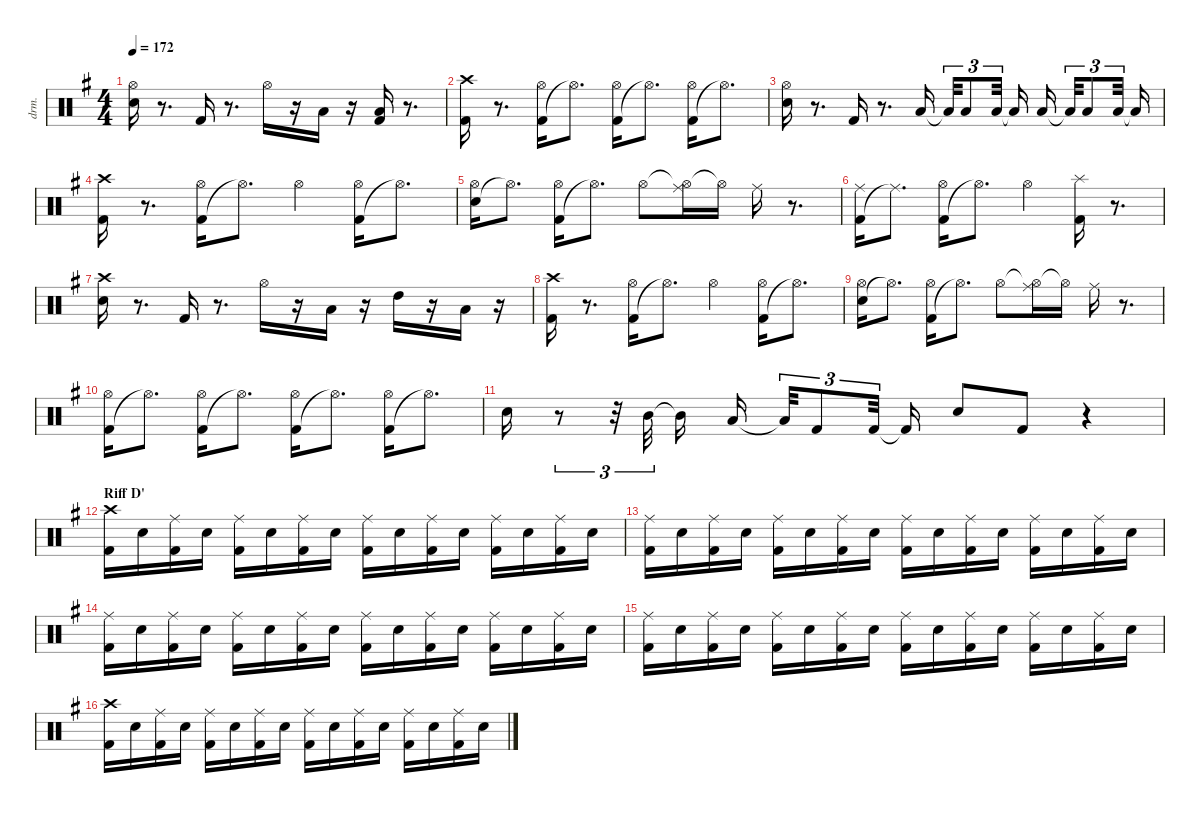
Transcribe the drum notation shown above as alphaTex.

\defaultSystemsLayout 4
\hideDynamics
\bracketExtendMode nobrackets
\otherSystemsTrackNameOrientation horizontal
\track ("Shinya" "drm.") {instrument percussion}
\staff {score}
\articulation defaults
\ts (4 4)
\tempo 172
\clef neutral
\ks eminor
("Snare (hit) 2"{acc forcenatural} "Hi-Hat (open)"{acc #}).16{dy fff beam Down} r.8{d beam Down} "Kick (hit) 2"{acc forcenatural}.16{beam Up} r.8{d beam Up} "Hi-Hat (open)"{acc #}.16{beam Down} r.16{beam Down} "Low Tom (hit)"{acc forcenatural}.16{beam Up} r.16{beam Up} ("Kick (hit) 2"{acc forcenatural} "Low Tom (hit)"{acc forcenatural}).16{beam Up} r.8{d beam Up} |
("Kick (hit) 2"{acc forcenatural} "Crash high (hit)"{acc #}).16{beam Down} r.8{d beam Down} ("Kick (hit) 2"{acc forcenatural} "Hi-Hat (open)"{acc #}).16{beam Down} "Hi-Hat (open)"{t acc #}.8{d beam Down} ("Kick (hit) 2"{acc forcenatural} "Hi-Hat (open)"{acc #}).16{beam Down} "Hi-Hat (open)"{t acc #}.8{d beam Down} ("Kick (hit) 2"{acc forcenatural} "Hi-Hat (open)"{acc #}).16{beam Down} "Hi-Hat (open)"{t acc #}.8{d beam Down} |
("Snare (hit) 2"{acc forcenatural} "Hi-Hat (open)"{acc #}).16{beam Down} r.8{d beam Down} "Kick (hit) 2"{acc forcenatural}.16{beam Up} r.8{d beam Up} "Low Tom (hit)"{acc forcenatural}.16{dy mf beam Up} "Low Tom (hit)"{t acc forcenatural}.32{tu (3 2) beam Up} "Low Tom (hit)"{acc forcenatural}.8{tu (3 2) dy f beam Up} "Low Tom (hit)"{acc forcenatural}.32{tu (3 2) dy fff beam Up} "Low Tom (hit)"{t acc forcenatural}.16{beam Up} "Low Tom (hit)"{acc forcenatural}.16{beam Up} "Low Tom (hit)"{t acc forcenatural}.32{tu (3 2) beam Up} "Low Tom (hit)"{acc forcenatural}.8{tu (3 2) beam Up} "Low Tom (hit)"{acc forcenatural}.32{tu (3 2) beam Up} "Low Tom (hit)"{t acc forcenatural}.16{beam Up} |
("Kick (hit) 2"{acc forcenatural} "Crash high (hit)"{acc #}).16{beam Down} r.8{d beam Down} ("Kick (hit) 2"{acc forcenatural} "Hi-Hat (open)"{acc #}).16{beam Down} "Hi-Hat (open)"{t acc #}.8{d beam Down} "Hi-Hat (open)"{acc #}.4{beam Down} ("Kick (hit) 2"{acc forcenatural} "Hi-Hat (open)"{acc #}).16{beam Down} "Hi-Hat (open)"{t acc #}.8{d beam Down} |
("Snare (hit) 2"{acc forcenatural} "Hi-Hat (open)"{acc #}).16{beam Down} "Hi-Hat (open)"{t acc #}.8{d beam Down} ("Kick (hit) 2"{acc forcenatural} "Hi-Hat (open)"{acc #}).16{beam Down} "Hi-Hat (open)"{t acc #}.8{d beam Down} "Hi-Hat (open)"{acc #}.8{beam Down} ("Hi-Hat (open)"{t acc #} "Ride (middle)"{acc #}).16{beam Down} "Hi-Hat (open)"{t acc #}.16{beam Down} "Ride (middle)"{acc #}.16{beam Down} r.8{d beam Down} |
("Kick (hit) 2"{acc forcenatural} "Ride (middle)"{acc #}).16{beam Down} "Ride (middle)"{t acc #}.8{d beam Down} ("Kick (hit) 2"{acc forcenatural} "Hi-Hat (open)"{acc #}).16{beam Down} "Hi-Hat (open)"{t acc #}.8{d beam Down} "Hi-Hat (open)"{acc #}.4{beam Down} ("Kick (hit) 2"{acc forcenatural} "Splash (hit)"{acc forcenatural}).16{beam Down} r.8{d beam Down} |
("Snare (hit) 2"{acc forcenatural} "Crash high (hit)"{acc #}).16{beam Down} r.8{d beam Down} "Kick (hit) 2"{acc forcenatural}.16{beam Up} r.8{d beam Up} "Hi-Hat (open)"{acc #}.16{beam Down} r.16{beam Down} "Low Tom (hit)"{acc forcenatural}.16{beam Up} r.16{beam Up} "High Tom (hit)"{acc forcenatural}.16{beam Down} r.16{beam Down} "Low Tom (hit)"{acc forcenatural}.16{beam Up} r.16{beam Up} |
("Kick (hit) 2"{acc forcenatural} "Crash high (hit)"{acc #}).16{beam Down} r.8{d beam Down} ("Kick (hit) 2"{acc forcenatural} "Hi-Hat (open)"{acc #}).16{beam Down} "Hi-Hat (open)"{t acc #}.8{d beam Down} "Hi-Hat (open)"{acc #}.4{beam Down} ("Kick (hit) 2"{acc forcenatural} "Hi-Hat (open)"{acc #}).16{beam Down} "Hi-Hat (open)"{t acc #}.8{d beam Down} |
("Snare (hit) 2"{acc forcenatural} "Hi-Hat (open)"{acc #}).16{beam Down} "Hi-Hat (open)"{t acc #}.8{d beam Down} ("Kick (hit) 2"{acc forcenatural} "Hi-Hat (open)"{acc #}).16{beam Down} "Hi-Hat (open)"{t acc #}.8{d dy ff beam Down} "Hi-Hat (open)"{acc #}.8{dy fff beam Down} ("Hi-Hat (open)"{t acc #} "Ride (middle)"{acc #}).16{beam Down} "Hi-Hat (open)"{t acc #}.16{beam Down} "Ride (middle)"{acc #}.16{beam Down} r.8{d beam Down} |
("Kick (hit) 2"{acc forcenatural} "Hi-Hat (open)"{acc #}).16{beam Down} "Hi-Hat (open)"{t acc #}.8{d dy ff beam Down} ("Kick (hit) 2"{acc forcenatural} "Hi-Hat (open)"{acc #}).16{dy fff beam Down} "Hi-Hat (open)"{t acc #}.8{d beam Down} ("Kick (hit) 2"{acc forcenatural} "Hi-Hat (open)"{acc #}).16{beam Down} "Hi-Hat (open)"{t acc #}.8{d dy ff beam Down} ("Kick (hit) 2"{acc forcenatural} "Hi-Hat (open)"{acc #}).16{dy fff beam Down} "Hi-Hat (open)"{t acc #}.8{d beam Down} |
"Snare (hit) 2"{acc forcenatural}.16{beam Down} r.8{tu (3 2) beam Down} r.32{tu (3 2) beam Down} "Mid Tom (hit)"{acc forcenatural}.32{tu (3 2) beam Down} "Mid Tom (hit)"{t acc forcenatural}.16{beam Down} "Low Tom (hit)"{acc forcenatural}.16{beam Up} "Low Tom (hit)"{t acc forcenatural}.32{tu (3 2) beam Up} "Kick (hit) 2"{acc forcenatural}.8{tu (3 2) beam Up} "Kick (hit) 2"{acc forcenatural}.32{tu (3 2) beam Up} "Kick (hit) 2"{t acc forcenatural}.16{beam Up} "Snare (hit) 2"{acc forcenatural}.8{beam Up} "Kick (hit) 2"{acc forcenatural}.8{beam Up} r.4{beam Up} |
\section ("" "Riff D'")
("Kick (hit) 2"{acc forcenatural} "Crash high (hit)"{acc #}).16{beam Down} "Snare (hit) 2"{acc forcenatural}.16{beam Down} ("Kick (hit) 2"{acc forcenatural} "Ride (middle)"{acc #}).16{beam Down} "Snare (hit) 2"{acc forcenatural}.16{beam Down} ("Kick (hit) 2"{acc forcenatural} "Ride (middle)"{acc #}).16{beam Down} "Snare (hit) 2"{acc forcenatural}.16{beam Down} ("Kick (hit) 2"{acc forcenatural} "Ride (middle)"{acc #}).16{beam Down} "Snare (hit) 2"{acc forcenatural}.16{beam Down} ("Kick (hit) 2"{acc forcenatural} "Ride (middle)"{acc #}).16{beam Down} "Snare (hit) 2"{acc forcenatural}.16{beam Down} ("Kick (hit) 2"{acc forcenatural} "Ride (middle)"{acc #}).16{beam Down} "Snare (hit) 2"{acc forcenatural}.16{beam Down} ("Kick (hit) 2"{acc forcenatural} "Ride (middle)"{acc #}).16{beam Down} "Snare (hit) 2"{acc forcenatural}.16{beam Down} ("Kick (hit) 2"{acc forcenatural} "Ride (middle)"{acc #}).16{beam Down} "Snare (hit) 2"{acc forcenatural}.16{beam Down} |
("Kick (hit) 2"{acc forcenatural} "Ride (middle)"{acc #}).16{beam Down} "Snare (hit) 2"{acc forcenatural}.16{beam Down} ("Kick (hit) 2"{acc forcenatural} "Ride (middle)"{acc #}).16{beam Down} "Snare (hit) 2"{acc forcenatural}.16{beam Down} ("Kick (hit) 2"{acc forcenatural} "Ride (middle)"{acc #}).16{beam Down} "Snare (hit) 2"{acc forcenatural}.16{beam Down} ("Kick (hit) 2"{acc forcenatural} "Ride (middle)"{acc #}).16{beam Down} "Snare (hit) 2"{acc forcenatural}.16{beam Down} ("Kick (hit) 2"{acc forcenatural} "Ride (middle)"{acc #}).16{beam Down} "Snare (hit) 2"{acc forcenatural}.16{beam Down} ("Kick (hit) 2"{acc forcenatural} "Ride (middle)"{acc #}).16{beam Down} "Snare (hit) 2"{acc forcenatural}.16{beam Down} ("Kick (hit) 2"{acc forcenatural} "Ride (middle)"{acc #}).16{beam Down} "Snare (hit) 2"{acc forcenatural}.16{beam Down} ("Kick (hit) 2"{acc forcenatural} "Ride (middle)"{acc #}).16{beam Down} "Snare (hit) 2"{acc forcenatural}.16{beam Down} |
("Kick (hit) 2"{acc forcenatural} "Ride (middle)"{acc #}).16{beam Down} "Snare (hit) 2"{acc forcenatural}.16{beam Down} ("Kick (hit) 2"{acc forcenatural} "Ride (middle)"{acc #}).16{beam Down} "Snare (hit) 2"{acc forcenatural}.16{beam Down} ("Kick (hit) 2"{acc forcenatural} "Ride (middle)"{acc #}).16{beam Down} "Snare (hit) 2"{acc forcenatural}.16{beam Down} ("Kick (hit) 2"{acc forcenatural} "Ride (middle)"{acc #}).16{beam Down} "Snare (hit) 2"{acc forcenatural}.16{beam Down} ("Kick (hit) 2"{acc forcenatural} "Ride (middle)"{acc #}).16{beam Down} "Snare (hit) 2"{acc forcenatural}.16{beam Down} ("Kick (hit) 2"{acc forcenatural} "Ride (middle)"{acc #}).16{beam Down} "Snare (hit) 2"{acc forcenatural}.16{beam Down} ("Kick (hit) 2"{acc forcenatural} "Ride (middle)"{acc #}).16{beam Down} "Snare (hit) 2"{acc forcenatural}.16{beam Down} ("Kick (hit) 2"{acc forcenatural} "Ride (middle)"{acc #}).16{beam Down} "Snare (hit) 2"{acc forcenatural}.16{beam Down} |
("Kick (hit) 2"{acc forcenatural} "Ride (middle)"{acc #}).16{beam Down} "Snare (hit) 2"{acc forcenatural}.16{beam Down} ("Kick (hit) 2"{acc forcenatural} "Ride (middle)"{acc #}).16{beam Down} "Snare (hit) 2"{acc forcenatural}.16{beam Down} ("Kick (hit) 2"{acc forcenatural} "Ride (middle)"{acc #}).16{beam Down} "Snare (hit) 2"{acc forcenatural}.16{beam Down} ("Kick (hit) 2"{acc forcenatural} "Ride (middle)"{acc #}).16{beam Down} "Snare (hit) 2"{acc forcenatural}.16{beam Down} ("Kick (hit) 2"{acc forcenatural} "Ride (middle)"{acc #}).16{beam Down} "Snare (hit) 2"{acc forcenatural}.16{beam Down} ("Kick (hit) 2"{acc forcenatural} "Ride (middle)"{acc #}).16{beam Down} "Snare (hit) 2"{acc forcenatural}.16{beam Down} ("Kick (hit) 2"{acc forcenatural} "Ride (middle)"{acc #}).16{beam Down} "Snare (hit) 2"{acc forcenatural}.16{beam Down} ("Kick (hit) 2"{acc forcenatural} "Ride (middle)"{acc #}).16{beam Down} "Snare (hit) 2"{acc forcenatural}.16{beam Down} |
("Kick (hit) 2"{acc forcenatural} "Crash high (hit)"{acc #}).16{beam Down} "Snare (hit) 2"{acc forcenatural}.16{beam Down} ("Kick (hit) 2"{acc forcenatural} "Ride (middle)"{acc #}).16{beam Down} "Snare (hit) 2"{acc forcenatural}.16{beam Down} ("Kick (hit) 2"{acc forcenatural} "Ride (middle)"{acc #}).16{beam Down} "Snare (hit) 2"{acc forcenatural}.16{beam Down} ("Kick (hit) 2"{acc forcenatural} "Ride (middle)"{acc #}).16{beam Down} "Snare (hit) 2"{acc forcenatural}.16{beam Down} ("Kick (hit) 2"{acc forcenatural} "Ride (middle)"{acc #}).16{beam Down} "Snare (hit) 2"{acc forcenatural}.16{beam Down} ("Kick (hit) 2"{acc forcenatural} "Ride (middle)"{acc #}).16{beam Down} "Snare (hit) 2"{acc forcenatural}.16{beam Down} ("Kick (hit) 2"{acc forcenatural} "Ride (middle)"{acc #}).16{beam Down} "Snare (hit) 2"{acc forcenatural}.16{beam Down} ("Kick (hit) 2"{acc forcenatural} "Ride (middle)"{acc #}).16{beam Down} "Snare (hit) 2"{acc forcenatural}.16{beam Down}
